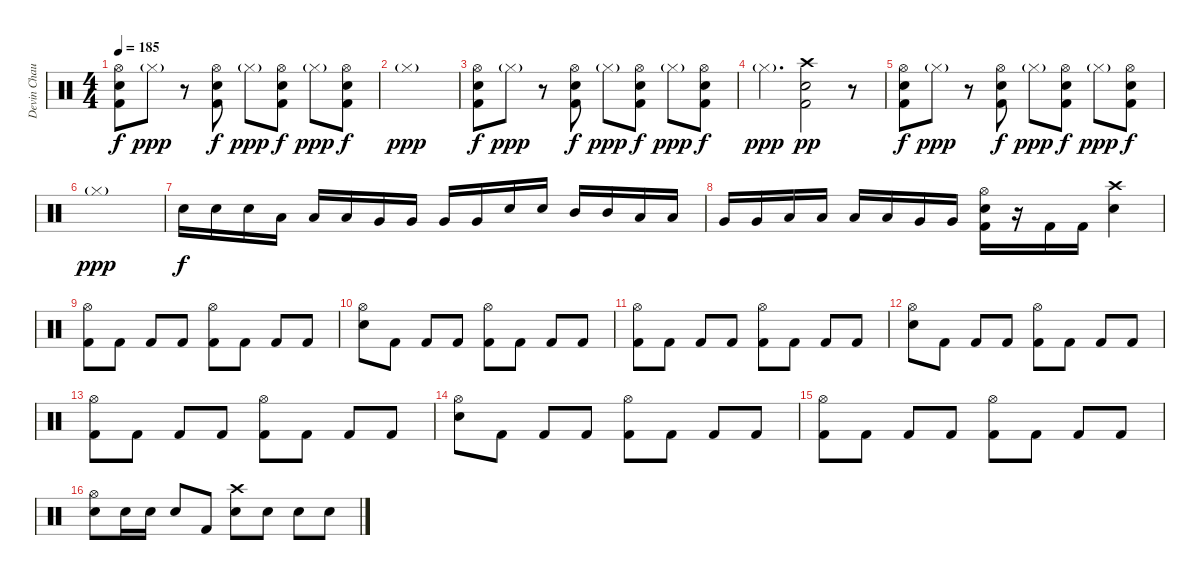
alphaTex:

\track ("Devin Chaulk" "Devin Chau") {instrument percussion}
\staff {score}
\articulation defaults
\ts (4 4)
\tempo 185
\clef neutral
\ks c
("Hi-Hat (open)" "Snare (hit) 2" "Kick (hit) 2").8{dy f} "Hi-Hat (closed)"{g}.8{dy ppp} r.8 ("Hi-Hat (open)" "Snare (hit) 2" "Kick (hit) 2").8{dy f} "Hi-Hat (closed)"{g}.8{dy ppp} ("Hi-Hat (open)" "Snare (hit) 2" "Kick (hit) 2").8{dy f} "Hi-Hat (closed)"{g}.8{dy ppp} ("Hi-Hat (open)" "Snare (hit) 2" "Kick (hit) 2").8{dy f} |
"Hi-Hat (closed)"{g}.1{dy ppp} |
("Hi-Hat (open)" "Snare (hit) 2" "Kick (hit) 2").8{dy f} "Hi-Hat (closed)"{g}.8{dy ppp} r.8 ("Hi-Hat (open)" "Snare (hit) 2" "Kick (hit) 2").8{dy f} "Hi-Hat (closed)"{g}.8{dy ppp} ("Hi-Hat (open)" "Snare (hit) 2" "Kick (hit) 2").8{dy f} "Hi-Hat (closed)"{g}.8{dy ppp} ("Hi-Hat (open)" "Snare (hit) 2" "Kick (hit) 2").8{dy f} |
"Hi-Hat (closed)"{g}.4{d dy ppp} ("Crash high (hit)" "Snare (hit) 2" "Kick (hit) 2").2{dy pp} r.8 |
("Hi-Hat (open)" "Snare (hit) 2" "Kick (hit) 2").8{dy f} "Hi-Hat (closed)"{g}.8{dy ppp} r.8 ("Hi-Hat (open)" "Snare (hit) 2" "Kick (hit) 2").8{dy f} "Hi-Hat (closed)"{g}.8{dy ppp} ("Hi-Hat (open)" "Snare (hit) 2" "Kick (hit) 2").8{dy f} "Hi-Hat (closed)"{g}.8{dy ppp} ("Hi-Hat (open)" "Snare (hit) 2" "Kick (hit) 2").8{dy f} |
"Hi-Hat (closed)"{g}.1{dy ppp} |
"Snare (hit) 2".16{dy f} "Snare (hit) 2".16 "Snare (hit) 2".16 "Low Tom (hit)".16 "Low Tom (hit)".16 "Low Tom (hit)".16 "Very Low Tom (hit)".16 "Very Low Tom (hit)".16 "Very Low Tom (hit)".16 "Very Low Tom (hit)".16 "Snare (hit) 2".16 "Snare (hit) 2".16 "Mid Tom (hit)".16 "Mid Tom (hit)".16 "Low Tom (hit)".16 "Low Tom (hit)".16 |
"Very Low Tom (hit)".16 "Very Low Tom (hit)".16 "Low Floor Tom (hit)".16 "Low Floor Tom (hit)".16 "Low Tom (hit)".16 "Low Tom (hit)".16 "Very Low Tom (hit)".16 "Very Low Tom (hit)".16 ("Hi-Hat (open)" "Snare (hit) 2" "Kick (hit) 2").16 r.16 "Kick (hit) 2".16 "Kick (hit) 2".16 ("Crash high (hit)" "Snare (hit) 2").4 |
("Hi-Hat (open)" "Kick (hit) 2").8 "Kick (hit) 2".8 "Kick (hit) 2".8 "Kick (hit) 2".8 ("Hi-Hat (open)" "Kick (hit) 2").8 "Kick (hit) 2".8 "Kick (hit) 2".8 "Kick (hit) 2".8 |
("Hi-Hat (open)" "Snare (hit) 2").8 "Kick (hit) 2".8 "Kick (hit) 2".8 "Kick (hit) 2".8 ("Hi-Hat (open)" "Kick (hit) 2").8 "Kick (hit) 2".8 "Kick (hit) 2".8 "Kick (hit) 2".8 |
("Hi-Hat (open)" "Kick (hit) 2").8 "Kick (hit) 2".8 "Kick (hit) 2".8 "Kick (hit) 2".8 ("Hi-Hat (open)" "Kick (hit) 2").8 "Kick (hit) 2".8 "Kick (hit) 2".8 "Kick (hit) 2".8 |
("Hi-Hat (open)" "Snare (hit) 2").8 "Kick (hit) 2".8 "Kick (hit) 2".8 "Kick (hit) 2".8 ("Hi-Hat (open)" "Kick (hit) 2").8 "Kick (hit) 2".8 "Kick (hit) 2".8 "Kick (hit) 2".8 |
("Hi-Hat (open)" "Kick (hit) 2").8 "Kick (hit) 2".8 "Kick (hit) 2".8 "Kick (hit) 2".8 ("Hi-Hat (open)" "Kick (hit) 2").8 "Kick (hit) 2".8 "Kick (hit) 2".8 "Kick (hit) 2".8 |
("Hi-Hat (open)" "Snare (hit) 2").8 "Kick (hit) 2".8 "Kick (hit) 2".8 "Kick (hit) 2".8 ("Hi-Hat (open)" "Kick (hit) 2").8 "Kick (hit) 2".8 "Kick (hit) 2".8 "Kick (hit) 2".8 |
("Hi-Hat (open)" "Kick (hit) 2").8 "Kick (hit) 2".8 "Kick (hit) 2".8 "Kick (hit) 2".8 ("Hi-Hat (open)" "Kick (hit) 2").8 "Kick (hit) 2".8 "Kick (hit) 2".8 "Kick (hit) 2".8 |
("Hi-Hat (open)" "Snare (hit) 2").8 "Snare (hit) 2".16 "Snare (hit) 2".16 "Snare (hit) 2".8 "Kick (hit) 2".8 ("Crash high (hit)" "Snare (hit) 2").8 "Snare (hit) 2".8 "Snare (hit) 2".8 "Snare (hit) 2".8
